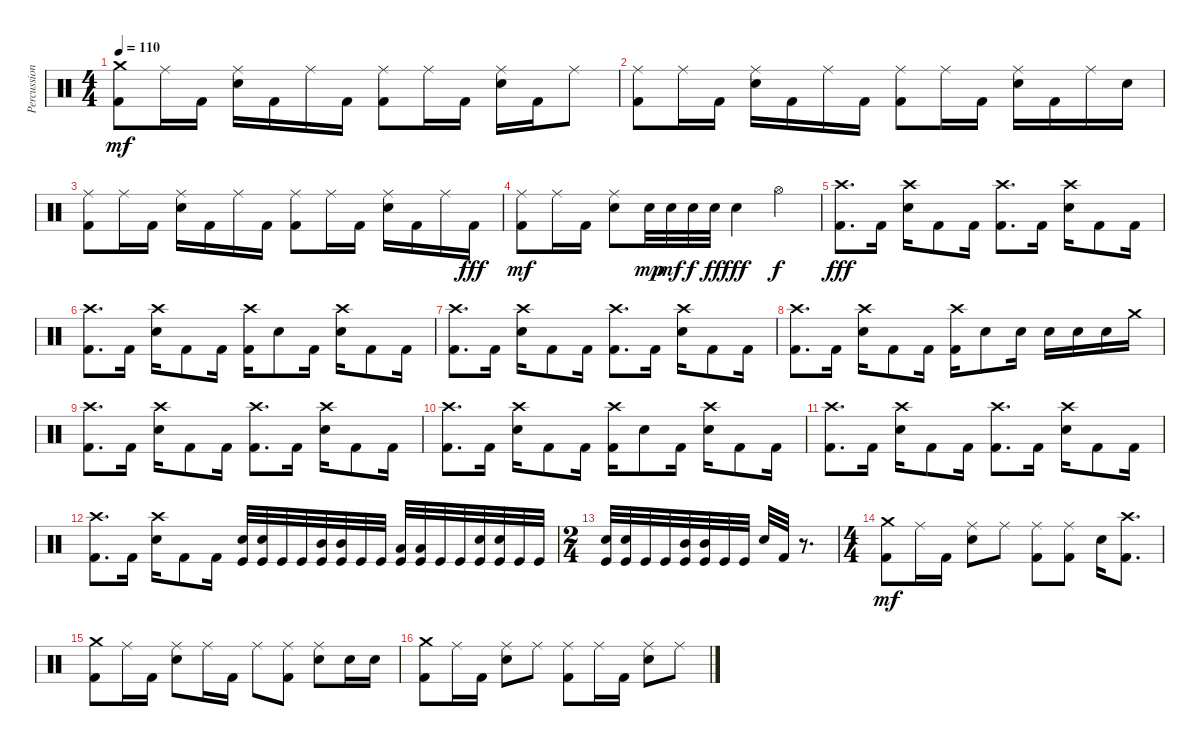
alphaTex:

\track ("Percussion" "Percussion") {instrument percussion}
\staff {score}
\articulation defaults
\ts (4 4)
\tempo 110
\clef neutral
\ks c
("Crash medium (hit)" "Kick (hit) 2").8{dy mf} "Ride (middle)".16 "Kick (hit) 2".16 ("Ride (middle)" "Electric Snare (hit)").16 "Kick (hit) 2".16 "Ride (middle)".16 "Kick (hit) 2".16 ("Ride (middle)" "Kick (hit) 2").8 "Ride (middle)".16 "Kick (hit) 2".16 ("Ride (middle)" "Electric Snare (hit)").16 "Kick (hit) 2".16 "Ride (middle)".8 |
("Ride (middle)" "Kick (hit) 2").8 "Ride (middle)".16 "Kick (hit) 2".16 ("Ride (middle)" "Electric Snare (hit)").16 "Kick (hit) 2".16 "Ride (middle)".16 "Kick (hit) 2".16 ("Ride (middle)" "Kick (hit) 2").8 "Ride (middle)".16 "Kick (hit) 2".16 ("Ride (middle)" "Electric Snare (hit)").16 "Kick (hit) 2".16 "Ride (middle)".16 "Electric Snare (hit)".16 |
("Ride (middle)" "Kick (hit) 2").8 "Ride (middle)".16 "Kick (hit) 2".16 ("Ride (middle)" "Electric Snare (hit)").16 "Kick (hit) 2".16 "Ride (middle)".16 "Kick (hit) 2".16 ("Ride (middle)" "Kick (hit) 2").8 "Ride (middle)".16 "Kick (hit) 2".16 ("Ride (middle)" "Electric Snare (hit)").16 "Kick (hit) 2".16 "Ride (middle)".16 "Kick (hit) 2".16{dy fff} |
("Ride (middle)" "Kick (hit) 2").8{dy mf} "Ride (middle)".16 "Kick (hit) 2".16 ("Ride (middle)" "Electric Snare (hit)").8 "Electric Snare (hit)".32{dy mp} "Electric Snare (hit)".32{dy mf} "Electric Snare (hit)".32{dy f} "Electric Snare (hit)".32{dy ff} "Electric Snare (hit)".4{dy fff} "Hi-Hat (open)".4{dy f} |
("Crash high (hit)" "Kick (hit) 2").8{d dy fff} "Kick (hit) 2".16 ("Crash high (hit)" "Electric Snare (hit)").16 "Kick (hit) 2".8 "Kick (hit) 2".16 ("Crash high (hit)" "Kick (hit) 2").8{d} "Kick (hit) 2".16 ("Crash high (hit)" "Electric Snare (hit)").16 "Kick (hit) 2".8 "Kick (hit) 2".16 |
("Crash high (hit)" "Kick (hit) 2").8{d} "Kick (hit) 2".16 ("Crash high (hit)" "Electric Snare (hit)").16 "Kick (hit) 2".8 "Kick (hit) 2".16 ("Crash high (hit)" "Kick (hit) 2").16 "Electric Snare (hit)".8 "Kick (hit) 2".16 ("Crash high (hit)" "Electric Snare (hit)").16 "Kick (hit) 2".8 "Kick (hit) 2".16 |
("Crash high (hit)" "Kick (hit) 2").8{d} "Kick (hit) 2".16 ("Crash high (hit)" "Electric Snare (hit)").16 "Kick (hit) 2".8 "Kick (hit) 2".16 ("Crash high (hit)" "Kick (hit) 2").8{d} "Kick (hit) 2".16 ("Crash high (hit)" "Electric Snare (hit)").16 "Kick (hit) 2".8 "Kick (hit) 2".16 |
("Crash high (hit)" "Kick (hit) 2").8{d} "Kick (hit) 2".16 ("Crash high (hit)" "Electric Snare (hit)").16 "Kick (hit) 2".8 "Kick (hit) 2".16 ("Crash high (hit)" "Kick (hit) 2").16 "Electric Snare (hit)".8 "Electric Snare (hit)".16 "Electric Snare (hit)".16 "Electric Snare (hit)".16 "Electric Snare (hit)".16 "Crash medium (hit)".16 |
("Crash high (hit)" "Kick (hit) 2").8{d} "Kick (hit) 2".16 ("Crash high (hit)" "Electric Snare (hit)").16 "Kick (hit) 2".8 "Kick (hit) 2".16 ("Crash high (hit)" "Kick (hit) 2").8{d} "Kick (hit) 2".16 ("Crash high (hit)" "Electric Snare (hit)").16 "Kick (hit) 2".8 "Kick (hit) 2".16 |
("Crash high (hit)" "Kick (hit) 2").8{d} "Kick (hit) 2".16 ("Crash high (hit)" "Electric Snare (hit)").16 "Kick (hit) 2".8 "Kick (hit) 2".16 ("Crash high (hit)" "Kick (hit) 2").16 "Electric Snare (hit)".8 "Kick (hit) 2".16 ("Crash high (hit)" "Electric Snare (hit)").16 "Kick (hit) 2".8 "Kick (hit) 2".16 |
("Crash high (hit)" "Kick (hit) 2").8{d} "Kick (hit) 2".16 ("Crash high (hit)" "Electric Snare (hit)").16 "Kick (hit) 2".8 "Kick (hit) 2".16 ("Crash high (hit)" "Kick (hit) 2").8{d} "Kick (hit) 2".16 ("Crash high (hit)" "Electric Snare (hit)").16 "Kick (hit) 2".8 "Kick (hit) 2".16 |
("Crash high (hit)" "Kick (hit) 2").8{d} "Kick (hit) 2".16 ("Crash high (hit)" "Electric Snare (hit)").16 "Kick (hit) 2".8 "Kick (hit) 2".16 ("Electric Snare (hit)" "Kick (hit)").32 ("Electric Snare (hit)" "Kick (hit)").32 "Kick (hit)".32 "Kick (hit)".32 ("Mid Tom (hit)" "Kick (hit)").32 ("Mid Tom (hit)" "Kick (hit)").32 "Kick (hit)".32 "Kick (hit)".32 ("Low Tom (hit)" "Kick (hit)").32 ("Low Tom (hit)" "Kick (hit)").32 "Kick (hit)".32 "Kick (hit)".32 ("Electric Snare (hit)" "Kick (hit)").32 ("Electric Snare (hit)" "Kick (hit)").32 "Kick (hit)".32 "Kick (hit)".32 |
\ts (2 4)
("Electric Snare (hit)" "Kick (hit)").32 ("Electric Snare (hit)" "Kick (hit)").32 "Kick (hit)".32 "Kick (hit)".32 ("Mid Tom (hit)" "Kick (hit)").32 ("Mid Tom (hit)" "Kick (hit)").32 "Kick (hit)".32 "Kick (hit)".32 "Electric Snare (hit)".32 "Kick (hit) 2".32 r.8{d} |
\ts (4 4)
("Crash medium (hit)" "Kick (hit) 2").8{dy mf} "Ride (middle)".16 "Kick (hit) 2".16 ("Ride (middle)" "Electric Snare (hit)").8 "Ride (middle)".8 ("Ride (middle)" "Kick (hit) 2").8 ("Ride (middle)" "Kick (hit) 2").8 "Electric Snare (hit)".16 ("Crash high (hit)" "Kick (hit) 2").8{d} |
("Crash medium (hit)" "Kick (hit) 2").8 "Ride (middle)".16 "Kick (hit) 2".16 ("Ride (middle)" "Electric Snare (hit)").8 "Ride (middle)".16 "Kick (hit) 2".16 "Ride (middle)".8 ("Ride (middle)" "Kick (hit) 2").8 ("Ride (middle)" "Electric Snare (hit)").8 "Electric Snare (hit)".16 "Electric Snare (hit)".16 |
("Crash medium (hit)" "Kick (hit) 2").8 "Ride (middle)".16 "Kick (hit) 2".16 ("Ride (middle)" "Electric Snare (hit)").8 "Ride (middle)".8 ("Ride (middle)" "Kick (hit) 2").8 "Ride (middle)".16 "Kick (hit) 2".16 ("Ride (middle)" "Electric Snare (hit)").8 "Ride (middle)".8
